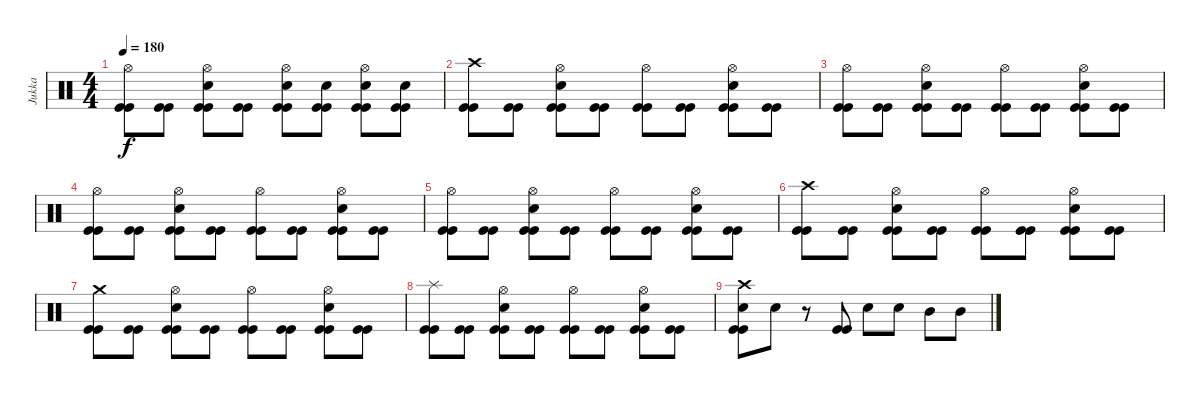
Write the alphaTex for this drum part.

\track ("Jukka" "Jukka") {instrument percussion}
\staff {score}
\articulation defaults
\ts (4 4)
\tempo 180
\clef neutral
\ks c
("Hi-Hat (open)" "Kick (hit)" "Kick (hit)").8{dy f} ("Kick (hit)" "Kick (hit)").8 ("Hi-Hat (open)" "Kick (hit)" "Kick (hit)" "Snare (hit) 2").8 ("Kick (hit)" "Kick (hit)").8 ("Hi-Hat (open)" "Kick (hit)" "Kick (hit)" "Snare (hit) 2").8 ("Kick (hit)" "Kick (hit)" "Snare (hit) 2").8 ("Hi-Hat (open)" "Kick (hit)" "Kick (hit)" "Snare (hit) 2").8 ("Kick (hit)" "Kick (hit)" "Snare (hit) 2").8 |
("Crash high (hit)" "Kick (hit)" "Kick (hit)").8{volume 7} ("Kick (hit)" "Kick (hit)").8 ("Hi-Hat (open)" "Kick (hit)" "Kick (hit)" "Snare (hit) 2").8 ("Kick (hit)" "Kick (hit)").8 ("Hi-Hat (open)" "Kick (hit)" "Kick (hit)").8 ("Kick (hit)" "Kick (hit)").8 ("Hi-Hat (open)" "Kick (hit)" "Kick (hit)" "Snare (hit) 2").8 ("Kick (hit)" "Kick (hit)").8 |
("Hi-Hat (open)" "Kick (hit)" "Kick (hit)").8 ("Kick (hit)" "Kick (hit)").8 ("Hi-Hat (open)" "Kick (hit)" "Kick (hit)" "Snare (hit) 2").8 ("Kick (hit)" "Kick (hit)").8 ("Hi-Hat (open)" "Kick (hit)" "Kick (hit)").8 ("Kick (hit)" "Kick (hit)").8 ("Hi-Hat (open)" "Kick (hit)" "Kick (hit)" "Snare (hit) 2").8 ("Kick (hit)" "Kick (hit)").8 |
("Hi-Hat (open)" "Kick (hit)" "Kick (hit)").8{volume 5} ("Kick (hit)" "Kick (hit)").8 ("Hi-Hat (open)" "Kick (hit)" "Kick (hit)" "Snare (hit) 2").8 ("Kick (hit)" "Kick (hit)").8 ("Hi-Hat (open)" "Kick (hit)" "Kick (hit)").8 ("Kick (hit)" "Kick (hit)").8 ("Hi-Hat (open)" "Kick (hit)" "Kick (hit)" "Snare (hit) 2").8 ("Kick (hit)" "Kick (hit)").8 |
("Hi-Hat (open)" "Kick (hit)" "Kick (hit)").8 ("Kick (hit)" "Kick (hit)").8 ("Hi-Hat (open)" "Kick (hit)" "Kick (hit)" "Snare (hit) 2").8 ("Kick (hit)" "Kick (hit)").8 ("Hi-Hat (open)" "Kick (hit)" "Kick (hit)").8 ("Kick (hit)" "Kick (hit)").8 ("Hi-Hat (open)" "Kick (hit)" "Kick (hit)" "Snare (hit) 2").8 ("Kick (hit)" "Kick (hit)").8 |
("Crash high (hit)" "Kick (hit)" "Kick (hit)").8{volume 3} ("Kick (hit)" "Kick (hit)").8 ("Hi-Hat (open)" "Kick (hit)" "Kick (hit)" "Snare (hit) 2").8 ("Kick (hit)" "Kick (hit)").8 ("Hi-Hat (open)" "Kick (hit)" "Kick (hit)").8 ("Kick (hit)" "Kick (hit)").8 ("Hi-Hat (open)" "Kick (hit)" "Kick (hit)" "Snare (hit) 2").8 ("Kick (hit)" "Kick (hit)").8 |
("Crash medium (hit)" "Kick (hit)" "Kick (hit)").8 ("Kick (hit)" "Kick (hit)").8 ("Hi-Hat (open)" "Kick (hit)" "Kick (hit)" "Snare (hit) 2").8 ("Kick (hit)" "Kick (hit)").8 ("Hi-Hat (open)" "Kick (hit)" "Kick (hit)").8 ("Kick (hit)" "Kick (hit)").8 ("Hi-Hat (open)" "Kick (hit)" "Kick (hit)" "Snare (hit) 2").8 ("Kick (hit)" "Kick (hit)").8 |
("Splash (hit)" "Kick (hit)" "Kick (hit)").8{volume 0} ("Kick (hit)" "Kick (hit)").8 ("Hi-Hat (open)" "Kick (hit)" "Kick (hit)" "Snare (hit) 2").8 ("Kick (hit)" "Kick (hit)").8 ("Hi-Hat (open)" "Kick (hit)" "Kick (hit)").8 ("Kick (hit)" "Kick (hit)").8 ("Hi-Hat (open)" "Kick (hit)" "Kick (hit)" "Snare (hit) 2").8 ("Kick (hit)" "Kick (hit)").8 |
("Crash high (hit)" "Snare (hit) 2" "Kick (hit)" "Kick (hit)").8 "Snare (hit) 2".8 r.8 ("Kick (hit)" "Kick (hit)").8 "Snare (hit) 2".8 "Snare (hit) 2".8 "Mid Tom (hit)".8 "Mid Tom (hit)".8
